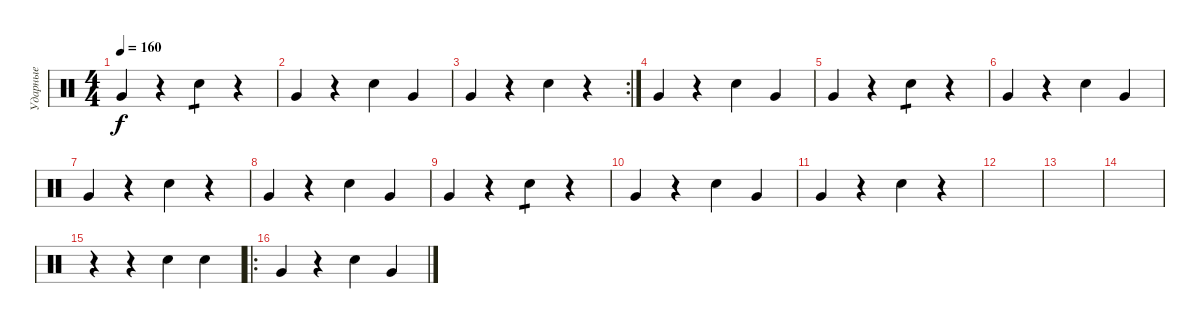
\track ("Ударные" "Ударные") {instrument percussion}
\staff {score}
\articulation defaults
\ts (4 4)
\tempo 160
\clef neutral
\ks c "Very Low Tom (hit)".4{dy f}
r.4 "Hand Clap (hit)".4{tp 1} r.4 |
"Very Low Tom (hit)".4 r.4 "Hand Clap (hit)".4 "Very Low Tom (hit)".4 |
\rc 2 "Very Low Tom (hit)".4
r.4 "Hand Clap (hit)".4 r.4 |
"Very Low Tom (hit)".4 r.4 "Hand Clap (hit)".4 "Very Low Tom (hit)".4 |
"Very Low Tom (hit)".4 r.4 "Hand Clap (hit)".4{tp 1} r.4 |
"Very Low Tom (hit)".4 r.4 "Hand Clap (hit)".4 "Very Low Tom (hit)".4 |
"Very Low Tom (hit)".4 r.4 "Hand Clap (hit)".4 r.4 |
"Very Low Tom (hit)".4 r.4 "Hand Clap (hit)".4 "Very Low Tom (hit)".4 |
"Very Low Tom (hit)".4 r.4 "Hand Clap (hit)".4{tp 1} r.4 |
"Very Low Tom (hit)".4 r.4 "Hand Clap (hit)".4 "Very Low Tom (hit)".4 |
"Very Low Tom (hit)".4 r.4 "Hand Clap (hit)".4 r.4 |
|
|
|
r.4 r.4 "Electric Snare (hit)".4 "Electric Snare (hit)".4 |
\ro "Very Low Tom (hit)".4
r.4 "Hand Clap (hit)".4 "Very Low Tom (hit)".4
